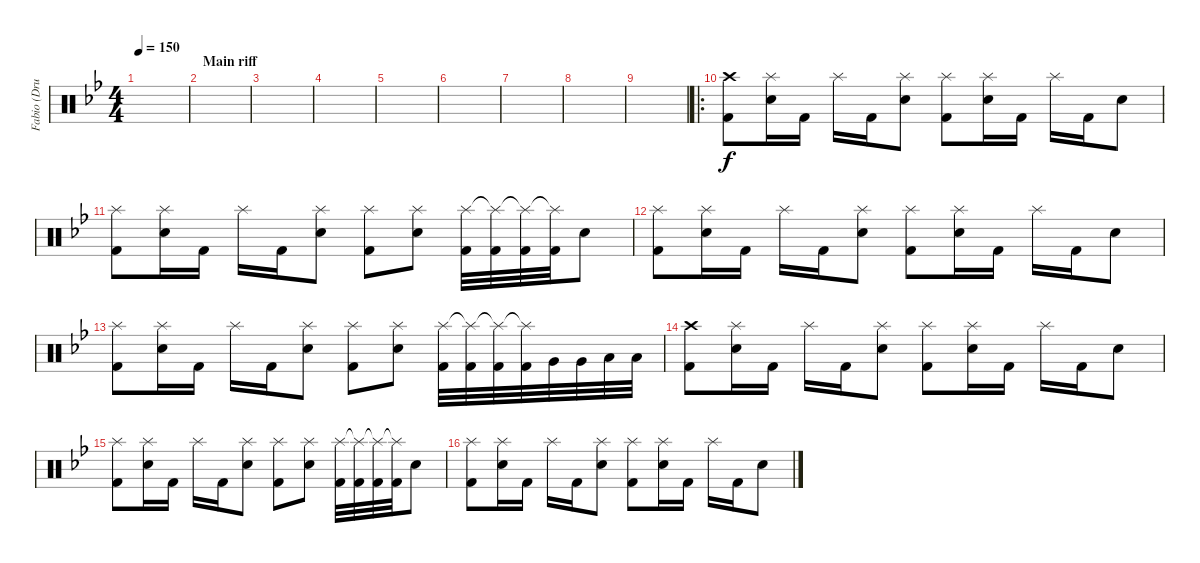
\track ("Fabio (Drums)" "Fabio (Dru") {instrument percussion}
\staff {score}
\articulation defaults
\ts (4 4)
\tempo 150
\clef neutral
\ks gminor
|
\section ("" "Main riff")
|
|
|
|
|
|
|
|
\ro
("Kick (hit) 2" "Crash high (hit)").8 ("Snare (hit) 2" "Splash (hit)").16 "Kick (hit) 2".16 "Splash (hit)".16 "Kick (hit) 2".16 ("Snare (hit) 2" "Splash (hit)").8 ("Kick (hit) 2" "Splash (hit)").8 ("Snare (hit) 2" "Splash (hit)").16 "Kick (hit) 2".16 "Splash (hit)".16 "Kick (hit) 2".16 "Snare (hit) 2".8 |
("Kick (hit) 2" "Splash (hit)").8 ("Snare (hit) 2" "Splash (hit)").16 "Kick (hit) 2".16 "Splash (hit)".16 "Kick (hit) 2".16 ("Snare (hit) 2" "Splash (hit)").8 ("Kick (hit) 2" "Splash (hit)").8 ("Snare (hit) 2" "Splash (hit)").8 ("Kick (hit) 2" "Splash (hit)").32 ("Kick (hit) 2" "Splash (hit)"{t}).32 ("Kick (hit) 2" "Splash (hit)"{t}).32 ("Kick (hit) 2" "Splash (hit)"{t}).32 "Snare (hit) 2".8 |
("Kick (hit) 2" "Splash (hit)").8 ("Snare (hit) 2" "Splash (hit)").16 "Kick (hit) 2".16 "Splash (hit)".16 "Kick (hit) 2".16 ("Snare (hit) 2" "Splash (hit)").8 ("Kick (hit) 2" "Splash (hit)").8 ("Snare (hit) 2" "Splash (hit)").16 "Kick (hit) 2".16 "Splash (hit)".16 "Kick (hit) 2".16 "Snare (hit) 2".8 |
("Kick (hit) 2" "Splash (hit)").8 ("Snare (hit) 2" "Splash (hit)").16 "Kick (hit) 2".16 "Splash (hit)".16 "Kick (hit) 2".16 ("Snare (hit) 2" "Splash (hit)").8 ("Kick (hit) 2" "Splash (hit)").8 ("Snare (hit) 2" "Splash (hit)").8 ("Kick (hit) 2" "Splash (hit)").32 ("Kick (hit) 2" "Splash (hit)"{t}).32 ("Kick (hit) 2" "Splash (hit)"{t}).32 ("Kick (hit) 2" "Splash (hit)"{t}).32 "Very Low Tom (hit)".32 "Very Low Tom (hit)".32 "Low Floor Tom (hit)".32 "Low Floor Tom (hit)".32 |
("Kick (hit) 2" "Crash high (hit)").8 ("Snare (hit) 2" "Splash (hit)").16 "Kick (hit) 2".16 "Splash (hit)".16 "Kick (hit) 2".16 ("Snare (hit) 2" "Splash (hit)").8 ("Kick (hit) 2" "Splash (hit)").8 ("Snare (hit) 2" "Splash (hit)").16 "Kick (hit) 2".16 "Splash (hit)".16 "Kick (hit) 2".16 "Snare (hit) 2".8 |
("Kick (hit) 2" "Splash (hit)").8 ("Snare (hit) 2" "Splash (hit)").16 "Kick (hit) 2".16 "Splash (hit)".16 "Kick (hit) 2".16 ("Snare (hit) 2" "Splash (hit)").8 ("Kick (hit) 2" "Splash (hit)").8 ("Snare (hit) 2" "Splash (hit)").8 ("Kick (hit) 2" "Splash (hit)").32 ("Kick (hit) 2" "Splash (hit)"{t}).32 ("Kick (hit) 2" "Splash (hit)"{t}).32 ("Kick (hit) 2" "Splash (hit)"{t}).32 "Snare (hit) 2".8 |
("Kick (hit) 2" "Splash (hit)").8 ("Snare (hit) 2" "Splash (hit)").16 "Kick (hit) 2".16 "Splash (hit)".16 "Kick (hit) 2".16 ("Snare (hit) 2" "Splash (hit)").8 ("Kick (hit) 2" "Splash (hit)").8 ("Snare (hit) 2" "Splash (hit)").16 "Kick (hit) 2".16 "Splash (hit)".16 "Kick (hit) 2".16 "Snare (hit) 2".8
